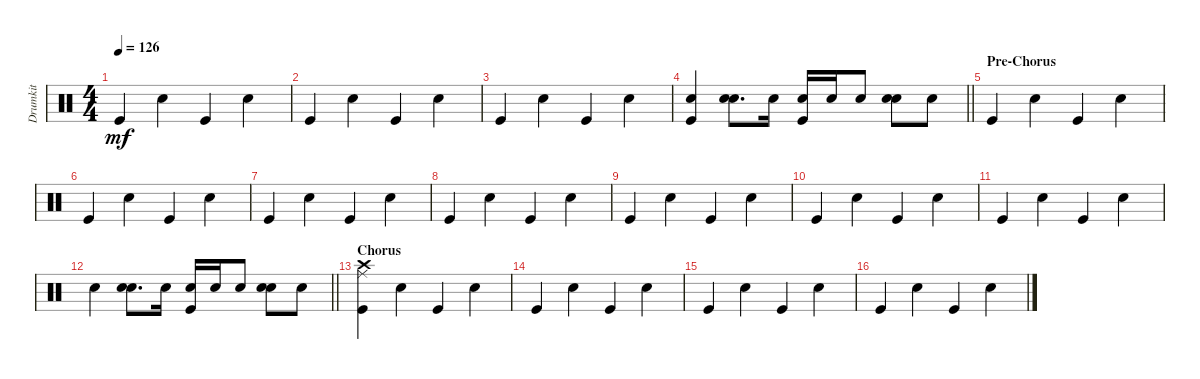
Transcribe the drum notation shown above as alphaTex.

\track ("Drumkit" "Drumkit") {instrument percussion}
\staff {score}
\articulation defaults
\ts (4 4)
\tempo 126
\clef neutral
\ks c "Kick (hit)".4{dy mf} "Snare (hit) 2".4 "Kick (hit)".4 "Snare (hit) 2".4
|
"Kick (hit)".4 "Snare (hit) 2".4 "Kick (hit)".4 "Snare (hit) 2".4 |
"Kick (hit)".4 "Snare (hit) 2".4 "Kick (hit)".4 "Snare (hit) 2".4 |
\barLineRight lightlight
("Kick (hit)" "Snare (hit) 2").4 ("Snare (hit) 2" "Snare (hit) 2").8{d} "Snare (hit) 2".16 ("Kick (hit)" "Snare (hit) 2").16 "Snare (hit) 2".16 "Snare (hit) 2".8 ("Snare (hit) 2" "Snare (hit) 2").8 "Snare (hit) 2".8 |
\section ("" "Pre-Chorus")
"Kick (hit)".4 "Snare (hit) 2".4 "Kick (hit)".4 "Snare (hit) 2".4 |
"Kick (hit)".4 "Snare (hit) 2".4 "Kick (hit)".4 "Snare (hit) 2".4 |
"Kick (hit)".4 "Snare (hit) 2".4 "Kick (hit)".4 "Snare (hit) 2".4 |
"Kick (hit)".4 "Snare (hit) 2".4 "Kick (hit)".4 "Snare (hit) 2".4 |
"Kick (hit)".4 "Snare (hit) 2".4 "Kick (hit)".4 "Snare (hit) 2".4 |
"Kick (hit)".4 "Snare (hit) 2".4 "Kick (hit)".4 "Snare (hit) 2".4 |
"Kick (hit)".4 "Snare (hit) 2".4 "Kick (hit)".4 "Snare (hit) 2".4 |
\barLineRight lightlight "Snare (hit) 2".4
("Snare (hit) 2" "Snare (hit) 2").8{d} "Snare (hit) 2".16 ("Kick (hit)" "Snare (hit) 2").16 "Snare (hit) 2".16 "Snare (hit) 2".8 ("Snare (hit) 2" "Snare (hit) 2").8 "Snare (hit) 2".8 |
\section ("" "Chorus")
("Kick (hit)" "Crash high (hit)" "Ride (middle)").4 "Snare (hit) 2".4 "Kick (hit)".4 "Snare (hit) 2".4 |
"Kick (hit)".4 "Snare (hit) 2".4 "Kick (hit)".4 "Snare (hit) 2".4 |
"Kick (hit)".4 "Snare (hit) 2".4 "Kick (hit)".4 "Snare (hit) 2".4 |
"Kick (hit)".4 "Snare (hit) 2".4 "Kick (hit)".4 "Snare (hit) 2".4
